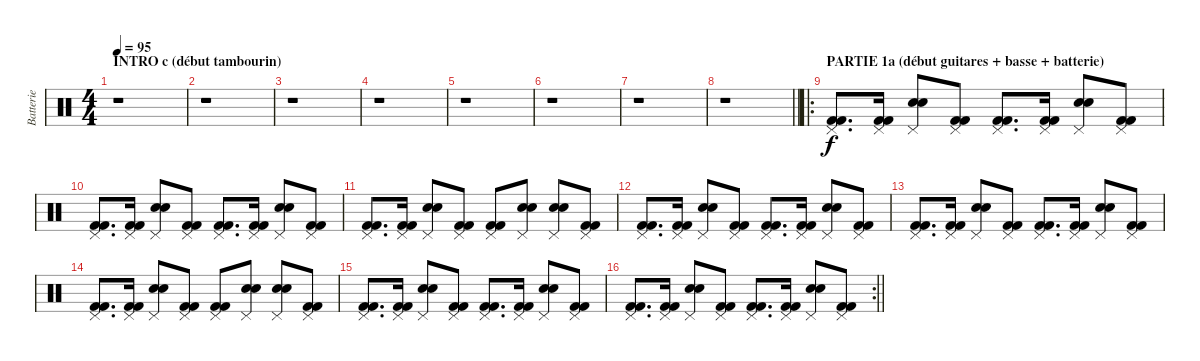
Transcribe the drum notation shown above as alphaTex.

\track ("Batterie" "Batterie") {instrument percussion}
\staff {score}
\articulation defaults
\ts (4 4)
\section ("" "INTRO c (début tambourin)")
\tempo 95
\clef neutral
\ks c
r.1{dy f} |
r.1 |
r.1 |
r.1 |
r.1 |
r.1 |
r.1 |
\barLineRight lightlight
r.1 |
\ro
\section ("" "PARTIE 1a (début guitares + basse + batterie)")
("Pedal Hi-Hat (hit)" "Kick (hit) 2" "Kick (hit) 2").8{d} ("Pedal Hi-Hat (hit)" "Kick (hit) 2" "Kick (hit) 2").16 ("Pedal Hi-Hat (hit)" "Electric Snare (hit)" "Electric Snare (hit)").8 ("Pedal Hi-Hat (hit)" "Kick (hit) 2" "Kick (hit) 2").8 ("Pedal Hi-Hat (hit)" "Kick (hit) 2" "Kick (hit) 2").8{d} ("Pedal Hi-Hat (hit)" "Kick (hit) 2" "Kick (hit) 2").16 ("Pedal Hi-Hat (hit)" "Electric Snare (hit)" "Electric Snare (hit)").8 ("Pedal Hi-Hat (hit)" "Kick (hit) 2" "Kick (hit) 2").8 |
("Pedal Hi-Hat (hit)" "Kick (hit) 2" "Kick (hit) 2").8{d} ("Pedal Hi-Hat (hit)" "Kick (hit) 2" "Kick (hit) 2").16 ("Pedal Hi-Hat (hit)" "Electric Snare (hit)" "Electric Snare (hit)").8 ("Pedal Hi-Hat (hit)" "Kick (hit) 2" "Kick (hit) 2").8 ("Pedal Hi-Hat (hit)" "Kick (hit) 2" "Kick (hit) 2").8{d} ("Pedal Hi-Hat (hit)" "Kick (hit) 2" "Kick (hit) 2").16 ("Pedal Hi-Hat (hit)" "Electric Snare (hit)" "Electric Snare (hit)").8 ("Pedal Hi-Hat (hit)" "Kick (hit) 2" "Kick (hit) 2").8 |
("Pedal Hi-Hat (hit)" "Kick (hit) 2" "Kick (hit) 2").8{d} ("Pedal Hi-Hat (hit)" "Kick (hit) 2" "Kick (hit) 2").16 ("Pedal Hi-Hat (hit)" "Electric Snare (hit)" "Electric Snare (hit)").8 ("Pedal Hi-Hat (hit)" "Kick (hit) 2" "Kick (hit) 2").8 ("Pedal Hi-Hat (hit)" "Kick (hit) 2" "Kick (hit) 2").8 ("Pedal Hi-Hat (hit)" "Electric Snare (hit)" "Electric Snare (hit)").8 ("Pedal Hi-Hat (hit)" "Electric Snare (hit)" "Electric Snare (hit)").8 ("Pedal Hi-Hat (hit)" "Kick (hit) 2" "Kick (hit) 2").8 |
("Pedal Hi-Hat (hit)" "Kick (hit) 2" "Kick (hit) 2").8{d} ("Pedal Hi-Hat (hit)" "Kick (hit) 2" "Kick (hit) 2").16 ("Pedal Hi-Hat (hit)" "Electric Snare (hit)" "Electric Snare (hit)").8 ("Pedal Hi-Hat (hit)" "Kick (hit) 2" "Kick (hit) 2").8 ("Pedal Hi-Hat (hit)" "Kick (hit) 2" "Kick (hit) 2").8{d} ("Pedal Hi-Hat (hit)" "Kick (hit) 2" "Kick (hit) 2").16 ("Pedal Hi-Hat (hit)" "Electric Snare (hit)" "Electric Snare (hit)").8 ("Pedal Hi-Hat (hit)" "Kick (hit) 2" "Kick (hit) 2").8 |
("Pedal Hi-Hat (hit)" "Kick (hit) 2" "Kick (hit) 2").8{d} ("Pedal Hi-Hat (hit)" "Kick (hit) 2" "Kick (hit) 2").16 ("Pedal Hi-Hat (hit)" "Electric Snare (hit)" "Electric Snare (hit)").8 ("Pedal Hi-Hat (hit)" "Kick (hit) 2" "Kick (hit) 2").8 ("Pedal Hi-Hat (hit)" "Kick (hit) 2" "Kick (hit) 2").8{d} ("Pedal Hi-Hat (hit)" "Kick (hit) 2" "Kick (hit) 2").16 ("Pedal Hi-Hat (hit)" "Electric Snare (hit)" "Electric Snare (hit)").8 ("Pedal Hi-Hat (hit)" "Kick (hit) 2" "Kick (hit) 2").8 |
("Pedal Hi-Hat (hit)" "Kick (hit) 2" "Kick (hit) 2").8{d} ("Pedal Hi-Hat (hit)" "Kick (hit) 2" "Kick (hit) 2").16 ("Pedal Hi-Hat (hit)" "Electric Snare (hit)" "Electric Snare (hit)").8 ("Pedal Hi-Hat (hit)" "Kick (hit) 2" "Kick (hit) 2").8 ("Pedal Hi-Hat (hit)" "Kick (hit) 2" "Kick (hit) 2").8 ("Pedal Hi-Hat (hit)" "Electric Snare (hit)" "Electric Snare (hit)").8 ("Pedal Hi-Hat (hit)" "Electric Snare (hit)" "Electric Snare (hit)").8 ("Pedal Hi-Hat (hit)" "Kick (hit) 2" "Kick (hit) 2").8 |
("Pedal Hi-Hat (hit)" "Kick (hit) 2" "Kick (hit) 2").8{d} ("Pedal Hi-Hat (hit)" "Kick (hit) 2" "Kick (hit) 2").16 ("Pedal Hi-Hat (hit)" "Electric Snare (hit)" "Electric Snare (hit)").8 ("Pedal Hi-Hat (hit)" "Kick (hit) 2" "Kick (hit) 2").8 ("Pedal Hi-Hat (hit)" "Kick (hit) 2" "Kick (hit) 2").8{d} ("Pedal Hi-Hat (hit)" "Kick (hit) 2" "Kick (hit) 2").16 ("Pedal Hi-Hat (hit)" "Electric Snare (hit)" "Electric Snare (hit)").8 ("Pedal Hi-Hat (hit)" "Kick (hit) 2" "Kick (hit) 2").8 |
\rc 2
\barLineRight lightlight
("Pedal Hi-Hat (hit)" "Kick (hit) 2" "Kick (hit) 2").8{d} ("Pedal Hi-Hat (hit)" "Kick (hit) 2" "Kick (hit) 2").16 ("Pedal Hi-Hat (hit)" "Electric Snare (hit)" "Electric Snare (hit)").8 ("Pedal Hi-Hat (hit)" "Kick (hit) 2" "Kick (hit) 2").8 ("Pedal Hi-Hat (hit)" "Kick (hit) 2" "Kick (hit) 2").8{d} ("Pedal Hi-Hat (hit)" "Kick (hit) 2" "Kick (hit) 2").16 ("Pedal Hi-Hat (hit)" "Electric Snare (hit)" "Electric Snare (hit)").8 ("Pedal Hi-Hat (hit)" "Kick (hit) 2" "Kick (hit) 2").8
